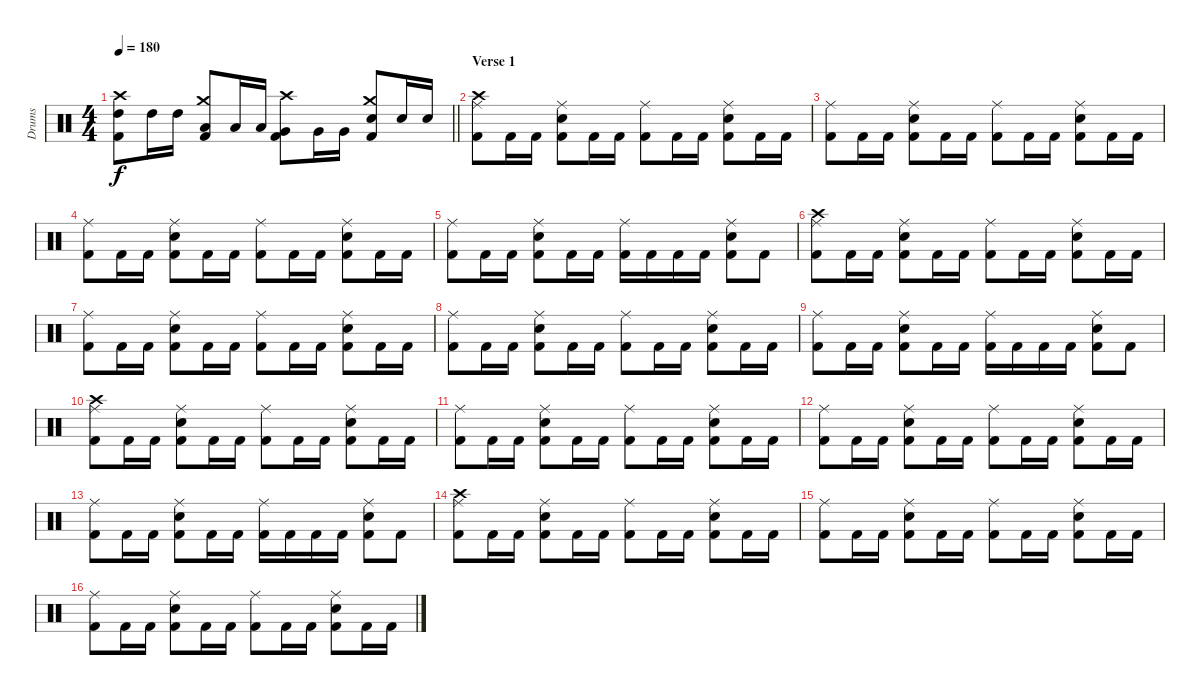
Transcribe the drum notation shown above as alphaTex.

\track ("Drums" "Drums") {instrument percussion}
\staff {score}
\articulation defaults
\ts (4 4)
\tempo 180
\clef neutral
\barLineRight lightlight
\ks c
("Crash high (hit)" "High Tom (hit)" "Kick (hit) 2").8{dy f} "High Tom (hit)".16 "High Tom (hit)".16 ("Crash medium (hit)" "Low Tom (hit)" "Kick (hit) 2").8 "Low Tom (hit)".16 "Low Tom (hit)".16 ("Crash high (hit)" "Very Low Tom (hit)" "Kick (hit) 2").8 "Very Low Tom (hit)".16 "Very Low Tom (hit)".16 ("Crash medium (hit)" "Snare (hit) 2" "Kick (hit) 2").8 "Snare (hit) 2".16 "Snare (hit) 2".16 |
\section ("" "Verse 1")
("Crash high (hit)" "Ride (middle)" "Kick (hit) 2").8 "Kick (hit) 2".16 "Kick (hit) 2".16 ("Ride (middle)" "Snare (hit) 2" "Kick (hit) 2").8 "Kick (hit) 2".16 "Kick (hit) 2".16 ("Ride (middle)" "Kick (hit) 2").8 "Kick (hit) 2".16 "Kick (hit) 2".16 ("Ride (middle)" "Snare (hit) 2" "Kick (hit) 2").8 "Kick (hit) 2".16 "Kick (hit) 2".16 |
("Ride (middle)" "Kick (hit) 2").8 "Kick (hit) 2".16 "Kick (hit) 2".16 ("Ride (middle)" "Snare (hit) 2" "Kick (hit) 2").8 "Kick (hit) 2".16 "Kick (hit) 2".16 ("Ride (middle)" "Kick (hit) 2").8 "Kick (hit) 2".16 "Kick (hit) 2".16 ("Ride (middle)" "Snare (hit) 2" "Kick (hit) 2").8 "Kick (hit) 2".16 "Kick (hit) 2".16 |
("Ride (middle)" "Kick (hit) 2").8 "Kick (hit) 2".16 "Kick (hit) 2".16 ("Ride (middle)" "Snare (hit) 2" "Kick (hit) 2").8 "Kick (hit) 2".16 "Kick (hit) 2".16 ("Ride (middle)" "Kick (hit) 2").8 "Kick (hit) 2".16 "Kick (hit) 2".16 ("Ride (middle)" "Snare (hit) 2" "Kick (hit) 2").8 "Kick (hit) 2".16 "Kick (hit) 2".16 |
("Ride (middle)" "Kick (hit) 2").8 "Kick (hit) 2".16 "Kick (hit) 2".16 ("Ride (middle)" "Snare (hit) 2" "Kick (hit) 2").8 "Kick (hit) 2".16 "Kick (hit) 2".16 ("Ride (middle)" "Kick (hit) 2").16 "Kick (hit) 2".16 "Kick (hit) 2".16 "Kick (hit) 2".16 ("Ride (middle)" "Snare (hit) 2" "Kick (hit) 2").8 "Kick (hit) 2".8 |
("Crash high (hit)" "Ride (middle)" "Kick (hit) 2").8 "Kick (hit) 2".16 "Kick (hit) 2".16 ("Ride (middle)" "Snare (hit) 2" "Kick (hit) 2").8 "Kick (hit) 2".16 "Kick (hit) 2".16 ("Ride (middle)" "Kick (hit) 2").8 "Kick (hit) 2".16 "Kick (hit) 2".16 ("Ride (middle)" "Snare (hit) 2" "Kick (hit) 2").8 "Kick (hit) 2".16 "Kick (hit) 2".16 |
("Ride (middle)" "Kick (hit) 2").8 "Kick (hit) 2".16 "Kick (hit) 2".16 ("Ride (middle)" "Snare (hit) 2" "Kick (hit) 2").8 "Kick (hit) 2".16 "Kick (hit) 2".16 ("Ride (middle)" "Kick (hit) 2").8 "Kick (hit) 2".16 "Kick (hit) 2".16 ("Ride (middle)" "Snare (hit) 2" "Kick (hit) 2").8 "Kick (hit) 2".16 "Kick (hit) 2".16 |
("Ride (middle)" "Kick (hit) 2").8 "Kick (hit) 2".16 "Kick (hit) 2".16 ("Ride (middle)" "Snare (hit) 2" "Kick (hit) 2").8 "Kick (hit) 2".16 "Kick (hit) 2".16 ("Ride (middle)" "Kick (hit) 2").8 "Kick (hit) 2".16 "Kick (hit) 2".16 ("Ride (middle)" "Snare (hit) 2" "Kick (hit) 2").8 "Kick (hit) 2".16 "Kick (hit) 2".16 |
("Ride (middle)" "Kick (hit) 2").8 "Kick (hit) 2".16 "Kick (hit) 2".16 ("Ride (middle)" "Snare (hit) 2" "Kick (hit) 2").8 "Kick (hit) 2".16 "Kick (hit) 2".16 ("Ride (middle)" "Kick (hit) 2").16 "Kick (hit) 2".16 "Kick (hit) 2".16 "Kick (hit) 2".16 ("Ride (middle)" "Snare (hit) 2" "Kick (hit) 2").8 "Kick (hit) 2".8 |
("Crash high (hit)" "Ride (middle)" "Kick (hit) 2").8 "Kick (hit) 2".16 "Kick (hit) 2".16 ("Ride (middle)" "Snare (hit) 2" "Kick (hit) 2").8 "Kick (hit) 2".16 "Kick (hit) 2".16 ("Ride (middle)" "Kick (hit) 2").8 "Kick (hit) 2".16 "Kick (hit) 2".16 ("Ride (middle)" "Snare (hit) 2" "Kick (hit) 2").8 "Kick (hit) 2".16 "Kick (hit) 2".16 |
("Ride (middle)" "Kick (hit) 2").8 "Kick (hit) 2".16 "Kick (hit) 2".16 ("Ride (middle)" "Snare (hit) 2" "Kick (hit) 2").8 "Kick (hit) 2".16 "Kick (hit) 2".16 ("Ride (middle)" "Kick (hit) 2").8 "Kick (hit) 2".16 "Kick (hit) 2".16 ("Ride (middle)" "Snare (hit) 2" "Kick (hit) 2").8 "Kick (hit) 2".16 "Kick (hit) 2".16 |
("Ride (middle)" "Kick (hit) 2").8 "Kick (hit) 2".16 "Kick (hit) 2".16 ("Ride (middle)" "Snare (hit) 2" "Kick (hit) 2").8 "Kick (hit) 2".16 "Kick (hit) 2".16 ("Ride (middle)" "Kick (hit) 2").8 "Kick (hit) 2".16 "Kick (hit) 2".16 ("Ride (middle)" "Snare (hit) 2" "Kick (hit) 2").8 "Kick (hit) 2".16 "Kick (hit) 2".16 |
("Ride (middle)" "Kick (hit) 2").8 "Kick (hit) 2".16 "Kick (hit) 2".16 ("Ride (middle)" "Snare (hit) 2" "Kick (hit) 2").8 "Kick (hit) 2".16 "Kick (hit) 2".16 ("Ride (middle)" "Kick (hit) 2").16 "Kick (hit) 2".16 "Kick (hit) 2".16 "Kick (hit) 2".16 ("Ride (middle)" "Snare (hit) 2" "Kick (hit) 2").8 "Kick (hit) 2".8 |
("Crash high (hit)" "Ride (middle)" "Kick (hit) 2").8 "Kick (hit) 2".16 "Kick (hit) 2".16 ("Ride (middle)" "Snare (hit) 2" "Kick (hit) 2").8 "Kick (hit) 2".16 "Kick (hit) 2".16 ("Ride (middle)" "Kick (hit) 2").8 "Kick (hit) 2".16 "Kick (hit) 2".16 ("Ride (middle)" "Snare (hit) 2" "Kick (hit) 2").8 "Kick (hit) 2".16 "Kick (hit) 2".16 |
("Ride (middle)" "Kick (hit) 2").8 "Kick (hit) 2".16 "Kick (hit) 2".16 ("Ride (middle)" "Snare (hit) 2" "Kick (hit) 2").8 "Kick (hit) 2".16 "Kick (hit) 2".16 ("Ride (middle)" "Kick (hit) 2").8 "Kick (hit) 2".16 "Kick (hit) 2".16 ("Ride (middle)" "Snare (hit) 2" "Kick (hit) 2").8 "Kick (hit) 2".16 "Kick (hit) 2".16 |
("Ride (middle)" "Kick (hit) 2").8 "Kick (hit) 2".16 "Kick (hit) 2".16 ("Ride (middle)" "Snare (hit) 2" "Kick (hit) 2").8 "Kick (hit) 2".16 "Kick (hit) 2".16 ("Ride (middle)" "Kick (hit) 2").8 "Kick (hit) 2".16 "Kick (hit) 2".16 ("Ride (middle)" "Snare (hit) 2" "Kick (hit) 2").8 "Kick (hit) 2".16 "Kick (hit) 2".16
